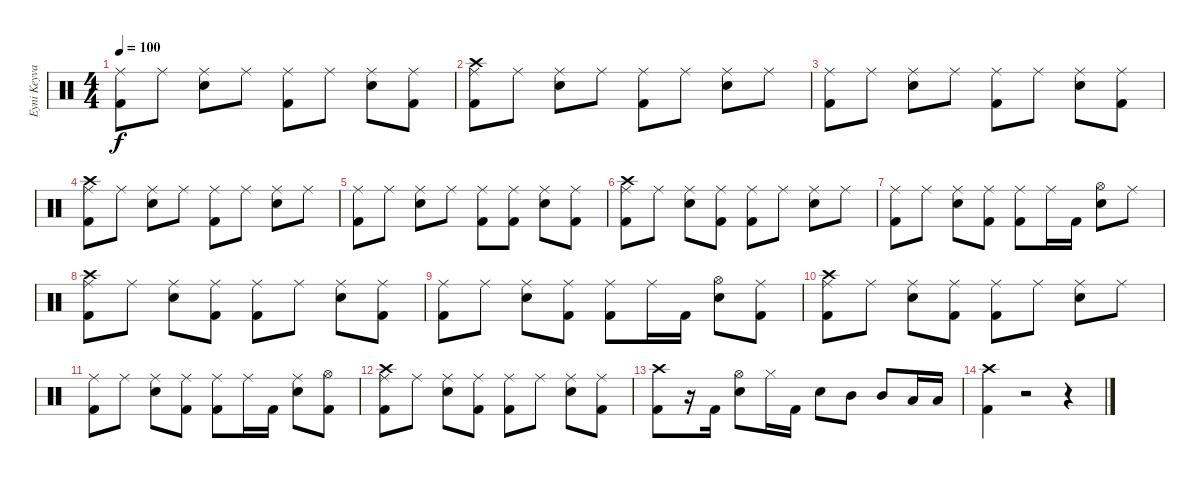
\track ("Eyni Keyvanshokoh" "Eyni Keyva") {instrument percussion}
\staff {score}
\articulation defaults
\ts (4 4)
\tempo 100
\clef neutral
\ks c
("Ride (middle)" "Kick (hit) 2").8{dy f} "Ride (middle)".8 ("Ride (middle)" "Electric Snare (hit)").8 "Ride (middle)".8 ("Ride (middle)" "Kick (hit) 2").8 "Ride (middle)".8 ("Ride (middle)" "Electric Snare (hit)").8 ("Ride (middle)" "Kick (hit) 2").8 |
("Crash high (hit)" "Ride (middle)" "Kick (hit) 2").8 "Ride (middle)".8 ("Ride (middle)" "Electric Snare (hit)").8 "Ride (middle)".8 ("Ride (middle)" "Kick (hit) 2").8 "Ride (middle)".8 ("Ride (middle)" "Electric Snare (hit)").8 "Ride (middle)".8 |
("Ride (middle)" "Kick (hit) 2").8 "Ride (middle)".8 ("Ride (middle)" "Electric Snare (hit)").8 "Ride (middle)".8 ("Ride (middle)" "Kick (hit) 2").8 "Ride (middle)".8 ("Ride (middle)" "Electric Snare (hit)").8 ("Ride (middle)" "Kick (hit) 2").8 |
("Crash high (hit)" "Ride (middle)" "Kick (hit) 2").8 "Ride (middle)".8 ("Ride (middle)" "Electric Snare (hit)").8 "Ride (middle)".8 ("Ride (middle)" "Kick (hit) 2").8 "Ride (middle)".8 ("Ride (middle)" "Electric Snare (hit)").8 "Ride (middle)".8 |
("Ride (middle)" "Kick (hit) 2").8 "Ride (middle)".8 ("Ride (middle)" "Electric Snare (hit)").8 "Ride (middle)".8 ("Ride (middle)" "Kick (hit) 2").8 ("Ride (middle)" "Kick (hit) 2").8 ("Ride (middle)" "Electric Snare (hit)").8 ("Ride (middle)" "Kick (hit) 2").8 |
("Crash high (hit)" "Ride (middle)" "Kick (hit) 2").8 "Ride (middle)".8 ("Ride (middle)" "Electric Snare (hit)").8 ("Ride (middle)" "Kick (hit) 2").8 ("Ride (middle)" "Kick (hit) 2").8 "Ride (middle)".8 ("Ride (middle)" "Electric Snare (hit)").8 "Ride (middle)".8 |
("Ride (middle)" "Kick (hit) 2").8 "Ride (middle)".8 ("Ride (middle)" "Electric Snare (hit)").8 ("Ride (middle)" "Kick (hit) 2").8 ("Ride (middle)" "Kick (hit) 2").8 "Ride (middle)".16 "Kick (hit) 2".16 ("Hi-Hat (open)" "Electric Snare (hit)").8 "Ride (middle)".8 |
("Crash high (hit)" "Ride (middle)" "Kick (hit) 2").8 "Ride (middle)".8 ("Ride (middle)" "Electric Snare (hit)").8 ("Ride (middle)" "Kick (hit) 2").8 ("Ride (middle)" "Kick (hit) 2").8 "Ride (middle)".8 ("Ride (middle)" "Electric Snare (hit)").8 ("Ride (middle)" "Kick (hit) 2").8 |
("Ride (middle)" "Kick (hit) 2").8 "Ride (middle)".8 ("Ride (middle)" "Electric Snare (hit)").8 ("Ride (middle)" "Kick (hit) 2").8 ("Ride (middle)" "Kick (hit) 2").8 "Ride (middle)".16 "Kick (hit) 2".16 ("Hi-Hat (open)" "Electric Snare (hit)").8 ("Ride (middle)" "Kick (hit) 2").8 |
("Crash high (hit)" "Ride (middle)" "Kick (hit) 2").8 "Ride (middle)".8 ("Ride (middle)" "Electric Snare (hit)").8 ("Ride (middle)" "Kick (hit) 2").8 ("Ride (middle)" "Kick (hit) 2").8 "Ride (middle)".8 ("Ride (middle)" "Electric Snare (hit)").8 "Ride (middle)".8 |
("Ride (middle)" "Kick (hit) 2").8 "Ride (middle)".8 ("Ride (middle)" "Electric Snare (hit)").8 ("Ride (middle)" "Kick (hit) 2").8 ("Ride (middle)" "Kick (hit) 2").8 "Ride (middle)".16 "Kick (hit) 2".16 ("Ride (middle)" "Electric Snare (hit)").8 ("Hi-Hat (open)" "Kick (hit) 2").8 |
("Crash high (hit)" "Ride (middle)" "Kick (hit) 2").8 "Ride (middle)".8 ("Ride (middle)" "Electric Snare (hit)").8 ("Ride (middle)" "Kick (hit) 2").8 ("Ride (middle)" "Kick (hit) 2").8 "Ride (middle)".8 ("Ride (middle)" "Electric Snare (hit)").8 ("Ride (middle)" "Kick (hit) 2").8 |
("Crash high (hit)" "Kick (hit) 2").8 r.16 "Kick (hit) 2".16 ("Hi-Hat (open)" "Electric Snare (hit)").8 "Hi-Hat (closed)".16 "Kick (hit) 2".16 "Electric Snare (hit)".8 "Mid Tom (hit)".8 "Mid Tom (hit)".8 "Low Tom (hit)".16 "Low Tom (hit)".16 |
("Crash high (hit)" "Kick (hit) 2").4 r.2 r.4
